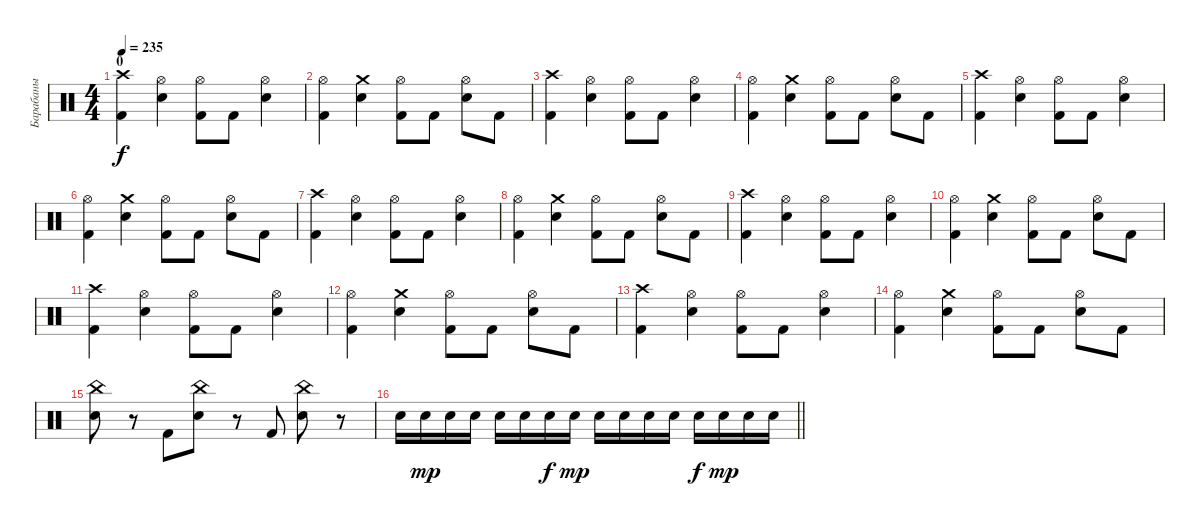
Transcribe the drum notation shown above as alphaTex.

\track ("Барабаны" "Барабаны") {instrument percussion}
\staff {score}
\articulation defaults
\ts (4 4)
\section ("" "0")
\tempo 235
\clef neutral
\ks c
("Crash high (hit)" "Kick (hit) 2").4{dy f} ("Electric Snare (hit)" "Hi-Hat (open)").4 ("Kick (hit) 2" "Hi-Hat (open)").8 "Kick (hit) 2".8 ("Hi-Hat (open)" "Electric Snare (hit)").4 |
("Hi-Hat (open)" "Kick (hit) 2").4 ("Crash medium (hit)" "Electric Snare (hit)").4 ("Hi-Hat (open)" "Kick (hit) 2").8 "Kick (hit) 2".8 ("Hi-Hat (open)" "Electric Snare (hit)").8 "Kick (hit) 2".8 |
("Crash high (hit)" "Kick (hit) 2").4 ("Electric Snare (hit)" "Hi-Hat (open)").4 ("Kick (hit) 2" "Hi-Hat (open)").8 "Kick (hit) 2".8 ("Hi-Hat (open)" "Electric Snare (hit)").4 |
("Hi-Hat (open)" "Kick (hit) 2").4 ("Crash medium (hit)" "Electric Snare (hit)").4 ("Hi-Hat (open)" "Kick (hit) 2").8 "Kick (hit) 2".8 ("Hi-Hat (open)" "Electric Snare (hit)").8 "Kick (hit) 2".8 |
("Crash high (hit)" "Kick (hit) 2").4 ("Electric Snare (hit)" "Hi-Hat (open)").4 ("Kick (hit) 2" "Hi-Hat (open)").8 "Kick (hit) 2".8 ("Hi-Hat (open)" "Electric Snare (hit)").4 |
("Hi-Hat (open)" "Kick (hit) 2").4 ("Crash medium (hit)" "Electric Snare (hit)").4 ("Hi-Hat (open)" "Kick (hit) 2").8 "Kick (hit) 2".8 ("Hi-Hat (open)" "Electric Snare (hit)").8 "Kick (hit) 2".8 |
("Crash high (hit)" "Kick (hit) 2").4 ("Electric Snare (hit)" "Hi-Hat (open)").4 ("Kick (hit) 2" "Hi-Hat (open)").8 "Kick (hit) 2".8 ("Hi-Hat (open)" "Electric Snare (hit)").4 |
("Hi-Hat (open)" "Kick (hit) 2").4 ("Crash medium (hit)" "Electric Snare (hit)").4 ("Hi-Hat (open)" "Kick (hit) 2").8 "Kick (hit) 2".8 ("Hi-Hat (open)" "Electric Snare (hit)").8 "Kick (hit) 2".8 |
("Crash high (hit)" "Kick (hit) 2").4 ("Electric Snare (hit)" "Hi-Hat (open)").4 ("Kick (hit) 2" "Hi-Hat (open)").8 "Kick (hit) 2".8 ("Hi-Hat (open)" "Electric Snare (hit)").4 |
("Hi-Hat (open)" "Kick (hit) 2").4 ("Crash medium (hit)" "Electric Snare (hit)").4 ("Hi-Hat (open)" "Kick (hit) 2").8 "Kick (hit) 2".8 ("Hi-Hat (open)" "Electric Snare (hit)").8 "Kick (hit) 2".8 |
("Crash high (hit)" "Kick (hit) 2").4 ("Electric Snare (hit)" "Hi-Hat (open)").4 ("Kick (hit) 2" "Hi-Hat (open)").8 "Kick (hit) 2".8 ("Hi-Hat (open)" "Electric Snare (hit)").4 |
("Hi-Hat (open)" "Kick (hit) 2").4 ("Crash medium (hit)" "Electric Snare (hit)").4 ("Hi-Hat (open)" "Kick (hit) 2").8 "Kick (hit) 2".8 ("Hi-Hat (open)" "Electric Snare (hit)").8 "Kick (hit) 2".8 |
("Crash high (hit)" "Kick (hit) 2").4 ("Electric Snare (hit)" "Hi-Hat (open)").4 ("Kick (hit) 2" "Hi-Hat (open)").8 "Kick (hit) 2".8 ("Hi-Hat (open)" "Electric Snare (hit)").4 |
("Hi-Hat (open)" "Kick (hit) 2").4 ("Crash medium (hit)" "Electric Snare (hit)").4 ("Hi-Hat (open)" "Kick (hit) 2").8 "Kick (hit) 2".8 ("Hi-Hat (open)" "Electric Snare (hit)").8 "Kick (hit) 2".8 |
("China (hit)" "Electric Snare (hit)").8 r.8 "Kick (hit) 2".8 ("China (hit)" "Electric Snare (hit)").8 r.8 "Kick (hit) 2".8 ("China (hit)" "Electric Snare (hit)").8 r.8 |
\barLineRight lightlight "Electric Snare (hit)".16 "Electric Snare (hit)".16{dy mp} "Electric Snare (hit)".16 "Electric Snare (hit)".16 "Electric Snare (hit)".16 "Electric Snare (hit)".16 "Electric Snare (hit)".16{dy f} "Electric Snare (hit)".16{dy mp} "Electric Snare (hit)".16 "Electric Snare (hit)".16 "Electric Snare (hit)".16 "Electric Snare (hit)".16 "Electric Snare (hit)".16{dy f} "Electric Snare (hit)".16{dy mp} "Electric Snare (hit)".16 "Electric Snare (hit)".16
